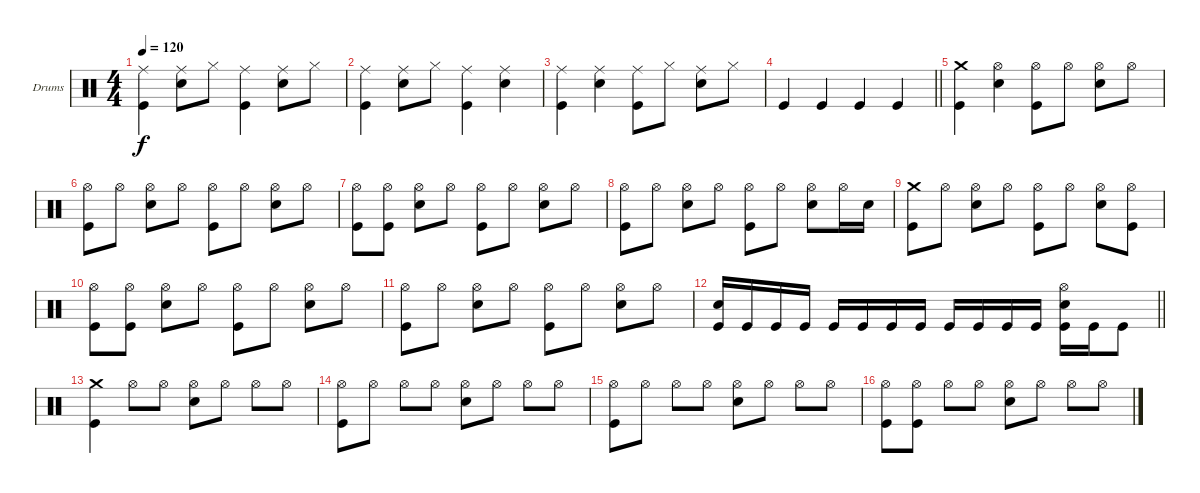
\defaultSystemsLayout 4
\bracketExtendMode groupsimilarinstruments
\firstSystemTrackNameOrientation horizontal
\otherSystemsTrackNameOrientation horizontal
\track ("Drums" "Drums") {instrument percussion}
\staff {score}
\articulation defaults
\ts (4 4)
\tempo 120
\clef neutral
\ks c
("Kick (hit)" "Ride (middle)").4{dy f} ("Snare (hit) 2" "Ride (middle)").8 "Hi-Hat (closed)".8 ("Kick (hit)" "Ride (middle)").4 ("Snare (hit) 2" "Ride (middle)").8 "Hi-Hat (closed)".8 |
("Kick (hit)" "Ride (middle)").4 ("Snare (hit) 2" "Ride (middle)").8 "Hi-Hat (closed)".8 ("Kick (hit)" "Ride (middle)").4 ("Snare (hit) 2" "Ride (middle)").4 |
("Kick (hit)" "Ride (middle)").4 ("Snare (hit) 2" "Ride (middle)").4 ("Kick (hit)" "Ride (middle)").8 "Hi-Hat (closed)".8 ("Snare (hit) 2" "Ride (middle)").8 "Hi-Hat (closed)".8 |
\barLineRight lightlight "Kick (hit)".4 "Kick (hit)".4 "Kick (hit)".4 "Kick (hit)".4
|
("Crash medium (hit)" "Kick (hit)").4 ("Snare (hit) 2" "Hi-Hat (open)").4 ("Hi-Hat (open)" "Kick (hit)").8 "Hi-Hat (open)".8 ("Snare (hit) 2" "Hi-Hat (open)").8 "Hi-Hat (open)".8 |
("Hi-Hat (open)" "Kick (hit)").8 "Hi-Hat (open)".8 ("Hi-Hat (open)" "Snare (hit) 2").8 "Hi-Hat (open)".8 ("Hi-Hat (open)" "Kick (hit)").8 "Hi-Hat (open)".8 ("Hi-Hat (open)" "Snare (hit) 2").8 "Hi-Hat (open)".8 |
("Hi-Hat (open)" "Kick (hit)").8 ("Hi-Hat (open)" "Kick (hit)").8 ("Hi-Hat (open)" "Snare (hit) 2").8 "Hi-Hat (open)".8 ("Hi-Hat (open)" "Kick (hit)").8 "Hi-Hat (open)".8 ("Hi-Hat (open)" "Snare (hit) 2").8 "Hi-Hat (open)".8 |
("Hi-Hat (open)" "Kick (hit)").8 "Hi-Hat (open)".8 ("Hi-Hat (open)" "Snare (hit) 2").8 "Hi-Hat (open)".8 ("Hi-Hat (open)" "Kick (hit)").8 "Hi-Hat (open)".8 ("Hi-Hat (open)" "Snare (hit) 2").8 "Hi-Hat (open)".16 "Snare (hit) 2".16 |
("Kick (hit)" "Crash medium (hit)").8 "Hi-Hat (open)".8 ("Hi-Hat (open)" "Snare (hit) 2").8 "Hi-Hat (open)".8 ("Hi-Hat (open)" "Kick (hit)").8 "Hi-Hat (open)".8 ("Hi-Hat (open)" "Snare (hit) 2").8 ("Hi-Hat (open)" "Kick (hit)").8 |
("Hi-Hat (open)" "Kick (hit)").8 ("Hi-Hat (open)" "Kick (hit)").8 ("Hi-Hat (open)" "Snare (hit) 2").8 "Hi-Hat (open)".8 ("Hi-Hat (open)" "Kick (hit)").8 "Hi-Hat (open)".8 ("Hi-Hat (open)" "Snare (hit) 2").8 "Hi-Hat (open)".8 |
("Hi-Hat (open)" "Kick (hit)").8 "Hi-Hat (open)".8 ("Hi-Hat (open)" "Snare (hit) 2").8 "Hi-Hat (open)".8 ("Hi-Hat (open)" "Kick (hit)").8 "Hi-Hat (open)".8 ("Hi-Hat (open)" "Snare (hit) 2").8 "Hi-Hat (open)".8 |
\barLineRight lightlight
("Kick (hit)" "Snare (hit) 2").16 "Kick (hit)".16 "Kick (hit)".16 "Kick (hit)".16 "Kick (hit)".16 "Kick (hit)".16 "Kick (hit)".16 "Kick (hit)".16 "Kick (hit)".16 "Kick (hit)".16 "Kick (hit)".16 "Kick (hit)".16 ("Kick (hit)" "Snare (hit) 2" "Hi-Hat (open)").16 "Kick (hit)".16 "Kick (hit)".8 |
("Kick (hit)" "Crash medium (hit)").4 "Hi-Hat (open)".8 "Hi-Hat (open)".8 ("Hi-Hat (open)" "Snare (hit) 2").8 "Hi-Hat (open)".8 "Hi-Hat (open)".8 "Hi-Hat (open)".8 |
("Kick (hit)" "Hi-Hat (open)").8 "Hi-Hat (open)".8 "Hi-Hat (open)".8 "Hi-Hat (open)".8 ("Hi-Hat (open)" "Snare (hit) 2").8 "Hi-Hat (open)".8 "Hi-Hat (open)".8 "Hi-Hat (open)".8 |
("Kick (hit)" "Hi-Hat (open)").8 "Hi-Hat (open)".8 "Hi-Hat (open)".8 "Hi-Hat (open)".8 ("Hi-Hat (open)" "Snare (hit) 2").8 "Hi-Hat (open)".8 "Hi-Hat (open)".8 "Hi-Hat (open)".8 |
("Kick (hit)" "Hi-Hat (open)").8 ("Hi-Hat (open)" "Kick (hit)").8 "Hi-Hat (open)".8 "Hi-Hat (open)".8 ("Hi-Hat (open)" "Snare (hit) 2").8 "Hi-Hat (open)".8 "Hi-Hat (open)".8 "Hi-Hat (open)".8
